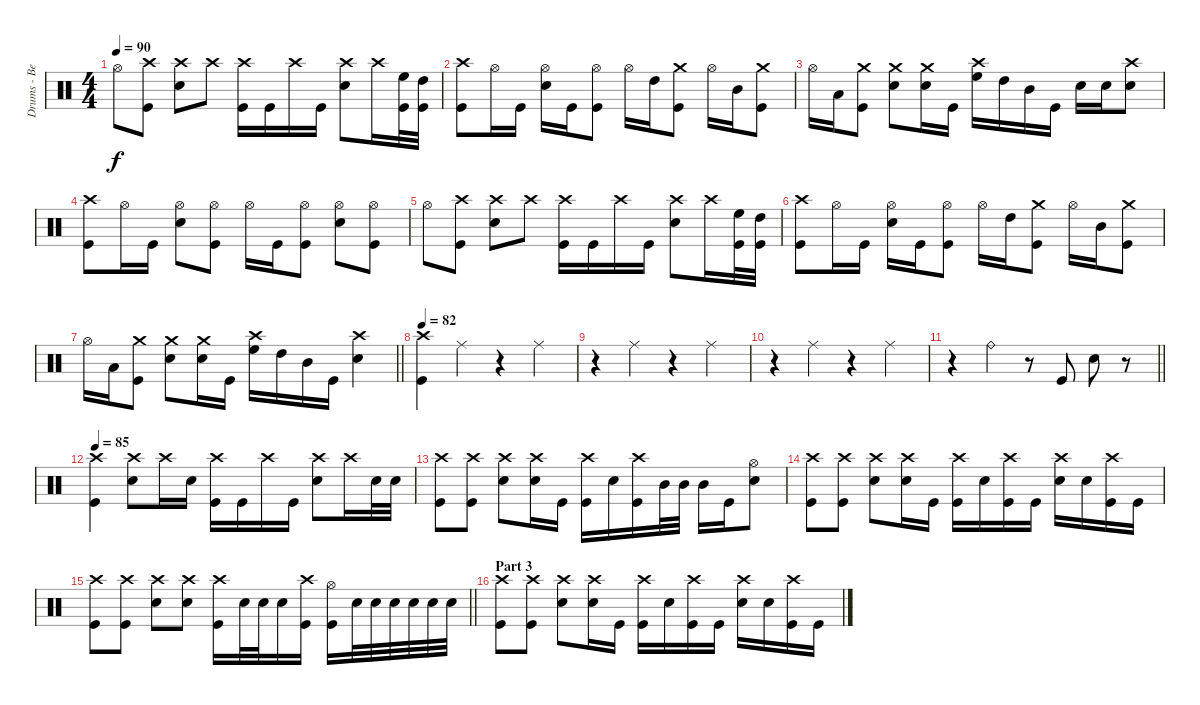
\track ("Drums - Ben Johnston" "Drums - Be") {instrument percussion}
\staff {score}
\articulation defaults
\ts (4 4)
\tempo 90
\clef neutral
\ks c "Hi-Hat (open)".8{dy f}
("Crash high (hit)" "Kick (hit)").8 ("Crash high (hit)" "Snare (hit) 2").8 "Crash high (hit)".8 ("Crash high (hit)" "Kick (hit)").16 "Kick (hit)".16 "Crash high (hit)".16 "Kick (hit)".16 ("Crash high (hit)" "Snare (hit) 2").8 "Crash high (hit)".16 ("High Floor Tom (hit)" "Kick (hit)").32 ("High Tom (hit)" "Kick (hit)").32 |
("Crash high (hit)" "Kick (hit)").8 "Hi-Hat (open)".16 "Kick (hit)".16 ("Hi-Hat (open)" "Snare (hit) 2").16 "Kick (hit)".16 ("Hi-Hat (open)" "Kick (hit)").8 "Hi-Hat (open)".16 "High Tom (hit)".16 ("Crash medium (hit)" "Kick (hit)").8 "Hi-Hat (open)".16 "Mid Tom (hit)".16 ("Crash medium (hit)" "Kick (hit)").8 |
"Hi-Hat (open)".16 "Low Tom (hit)".16 ("Crash medium (hit)" "Kick (hit)").8 ("Crash medium (hit)" "Snare (hit) 2").8 ("Crash medium (hit)" "Snare (hit) 2").16 "Kick (hit)".16 ("Crash high (hit)" "High Floor Tom (hit)").16 "High Tom (hit)".16 "Mid Tom (hit)".16 "Kick (hit)".16 "Snare (hit) 2".16 "Snare (hit) 2".16 ("Crash high (hit)" "Snare (hit) 2").8 |
("Crash high (hit)" "Kick (hit)").8 "Hi-Hat (open)".16 "Kick (hit)".16 ("Hi-Hat (open)" "Snare (hit) 2").8 ("Hi-Hat (open)" "Kick (hit)").8 "Hi-Hat (open)".16 "Kick (hit)".16 ("Hi-Hat (open)" "Kick (hit)").8 ("Hi-Hat (open)" "Snare (hit) 2").8 ("Hi-Hat (open)" "Kick (hit)").8 |
"Hi-Hat (open)".8 ("Crash high (hit)" "Kick (hit)").8 ("Crash high (hit)" "Snare (hit) 2").8 "Crash high (hit)".8 ("Crash high (hit)" "Kick (hit)").16 "Kick (hit)".16 "Crash high (hit)".16 "Kick (hit)".16 ("Crash high (hit)" "Snare (hit) 2").8 "Crash high (hit)".16 ("High Floor Tom (hit)" "Kick (hit)").32 ("High Tom (hit)" "Kick (hit)").32 |
("Crash high (hit)" "Kick (hit)").8 "Hi-Hat (open)".16 "Kick (hit)".16 ("Hi-Hat (open)" "Snare (hit) 2").16 "Kick (hit)".16 ("Hi-Hat (open)" "Kick (hit)").8 "Hi-Hat (open)".16 "High Tom (hit)".16 ("Crash medium (hit)" "Kick (hit)").8 "Hi-Hat (open)".16 "Mid Tom (hit)".16 ("Crash medium (hit)" "Kick (hit)").8 |
\barLineRight lightlight "Hi-Hat (open)".16 "Low Tom (hit)".16
("Crash medium (hit)" "Kick (hit)").8 ("Crash medium (hit)" "Snare (hit) 2").8 ("Crash medium (hit)" "Snare (hit) 2").16 "Kick (hit)".16 ("Crash high (hit)" "High Floor Tom (hit)").16 "High Tom (hit)".16 "Mid Tom (hit)".16 "Kick (hit)".16 ("Crash high (hit)" "Snare (hit) 2").4 |
\tempo 82
("Crash high (hit)" "Kick (hit)").4 "Ride (middle)".4 r.4 "Ride (middle)".4 |
r.4 "Ride (middle)".4 r.4 "Ride (middle)".4 |
r.4 "Ride (middle)".4 r.4 "Ride (middle)".4 |
\barLineRight lightlight
r.4 "Ride (bell)".4 r.8 "Kick (hit)".8 "Snare (hit) 2".8 r.8 |
\tempo 85
("Crash high (hit)" "Kick (hit)").4 ("Crash high (hit)" "Snare (hit) 2").8 "Crash high (hit)".16 "Snare (hit) 2".16 ("Crash high (hit)" "Kick (hit)").16 "Kick (hit)".16 "Crash high (hit)".16 "Kick (hit)".16 ("Crash high (hit)" "Snare (hit) 2").8 "Crash high (hit)".16 "Snare (hit) 2".32 "Snare (hit) 2".32 |
("Crash high (hit)" "Kick (hit)").8 ("Crash high (hit)" "Kick (hit)").8 ("Crash high (hit)" "Snare (hit) 2").8 ("Crash high (hit)" "Snare (hit) 2").16 "Kick (hit)".16 ("Crash high (hit)" "Kick (hit)").16 "Snare (hit) 2".16 ("Crash high (hit)" "Kick (hit)").16 "Mid Tom (hit)".32 "Mid Tom (hit)".32 "Mid Tom (hit)".16 "Kick (hit)".16 ("Hi-Hat (open)" "Snare (hit) 2").8 |
("Crash high (hit)" "Kick (hit)").8 ("Crash high (hit)" "Kick (hit)").8 ("Crash high (hit)" "Snare (hit) 2").8 ("Crash high (hit)" "Snare (hit) 2").16 "Kick (hit)".16 ("Crash high (hit)" "Kick (hit)").16 "Snare (hit) 2".16 ("Crash high (hit)" "Kick (hit)").16 "Kick (hit)".16 ("Crash high (hit)" "Snare (hit) 2").16 "Snare (hit) 2".16 ("Crash high (hit)" "Kick (hit)").16 "Kick (hit)".16 |
\barLineRight lightlight
("Crash high (hit)" "Kick (hit)").8 ("Crash high (hit)" "Kick (hit)").8 ("Crash high (hit)" "Snare (hit) 2").8 ("Crash high (hit)" "Snare (hit) 2").8 ("Crash high (hit)" "Kick (hit)").16 "Snare (hit) 2".32 "Snare (hit) 2".32 "Snare (hit) 2".16 ("Crash high (hit)" "Kick (hit)").16 ("Hi-Hat (open)" "Kick (hit)").16 "Snare (hit) 2".32 "Snare (hit) 2".32 "Snare (hit) 2".32 "Snare (hit) 2".32 "Snare (hit) 2".32 "Snare (hit) 2".32 |
\section ("" "Part 3")
("Crash high (hit)" "Kick (hit)").8 ("Crash high (hit)" "Kick (hit)").8 ("Crash high (hit)" "Snare (hit) 2").8 ("Crash high (hit)" "Snare (hit) 2").16 "Kick (hit)".16 ("Crash high (hit)" "Kick (hit)").16 "Snare (hit) 2".16 ("Crash high (hit)" "Kick (hit)").16 "Kick (hit)".16 ("Crash high (hit)" "Snare (hit) 2").16 "Snare (hit) 2".16 ("Crash high (hit)" "Kick (hit)").16 "Kick (hit)".16
